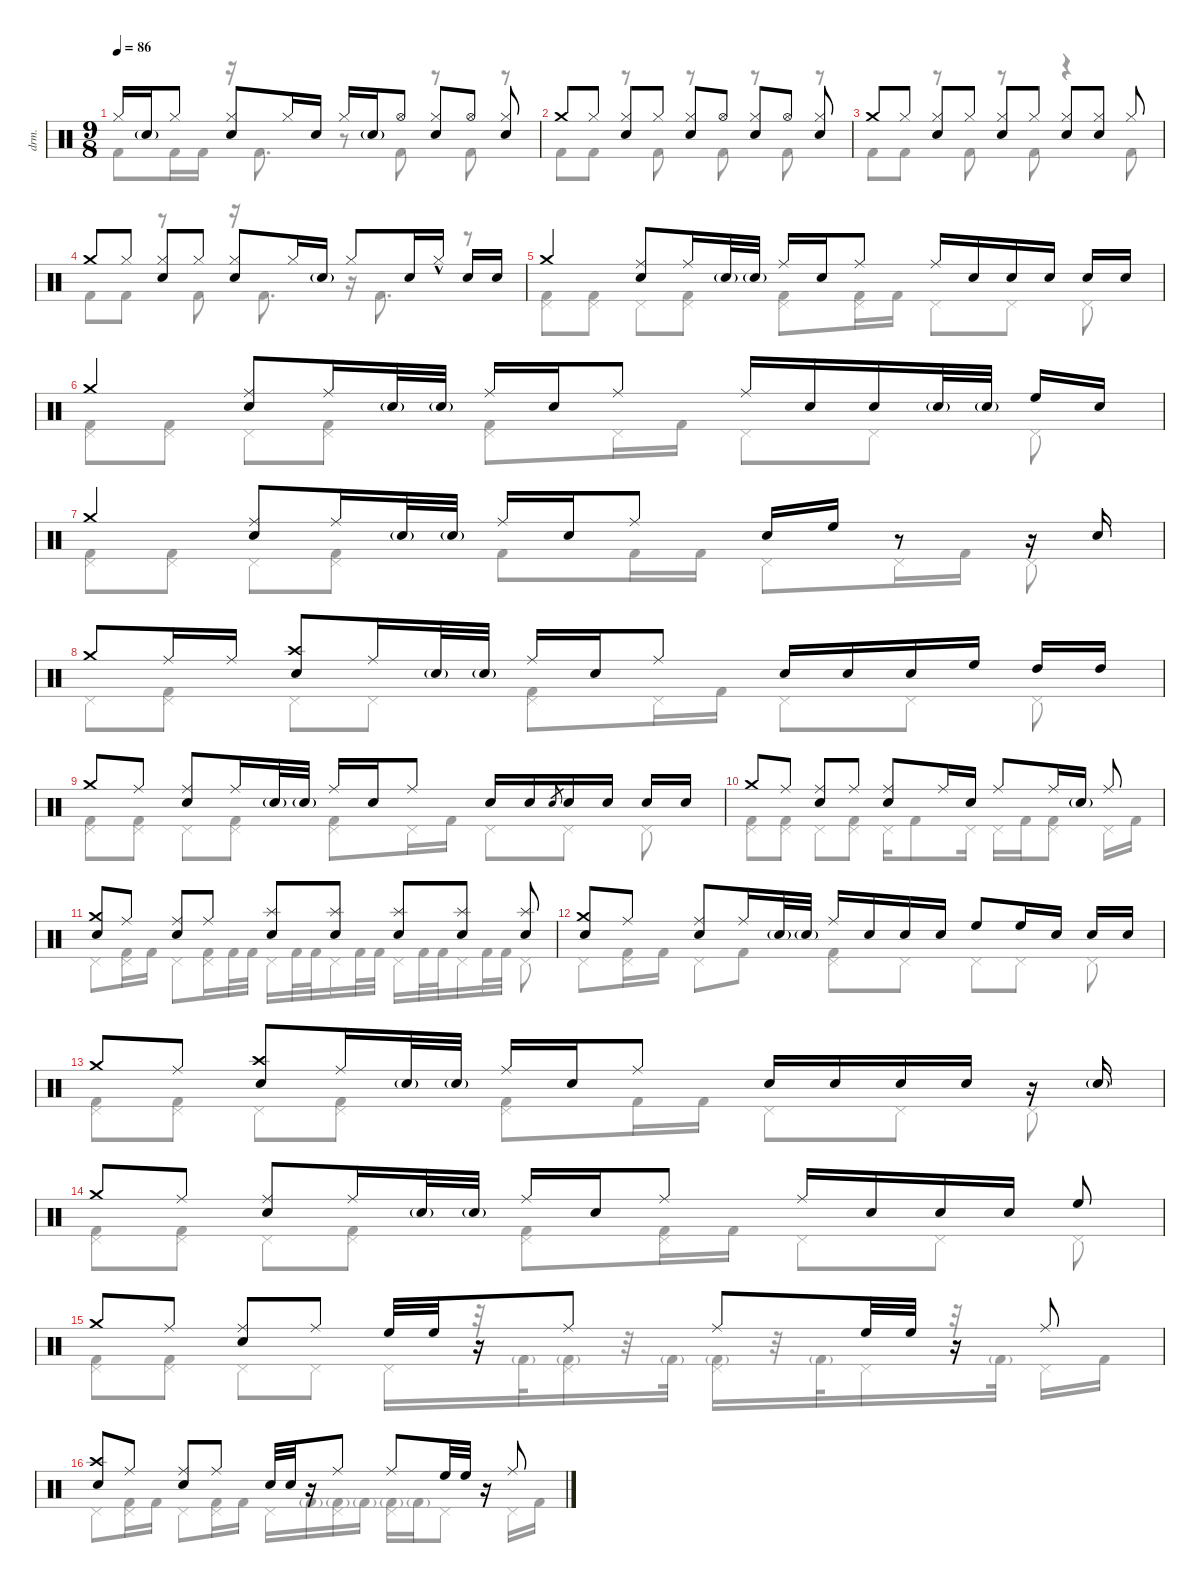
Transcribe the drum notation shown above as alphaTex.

\defaultSystemsLayout 4
\hideDynamics
\bracketExtendMode nobrackets
\track ("Drums" "drm.") {instrument percussion}
\staff {score}
\articulation defaults
\voice
\ts (9 8)
\tempo 86
\clef neutral
\scale
0.488793
\ks c "Hi-Hat (closed)".16{dy mf} "Snare (hit) 2"{g}.16 "Hi-Hat (closed)".8{beam split}
("Hi-Hat (closed)" "Snare (hit) 2").8{beam merge} "Hi-Hat (closed)".16 "Snare (hit) 2".16{beam split} "Hi-Hat (closed)".16 "Snare (hit) 2"{g}.16 "Hi-Hat (open)".8 ("Hi-Hat (closed)" "Snare (hit) 2").8 "Hi-Hat (open)".8{beam split} ("Hi-Hat (closed)" "Snare (hit) 2").8 |
"Crash medium (hit)".8 "Hi-Hat (closed)".8{beam split} ("Hi-Hat (closed)" "Snare (hit) 2").8{beam merge} "Hi-Hat (closed)".8{beam split} ("Hi-Hat (closed)" "Snare (hit) 2").8{beam merge} "Hi-Hat (open)".8 ("Hi-Hat (closed)" "Snare (hit) 2").8 "Hi-Hat (open)".8{beam split} ("Hi-Hat (closed)" "Snare (hit) 2").8 |
"Crash medium (hit)".8 "Hi-Hat (closed)".8{beam split} ("Hi-Hat (closed)" "Snare (hit) 2").8{beam merge} "Hi-Hat (closed)".8{beam split} ("Hi-Hat (closed)" "Snare (hit) 2").8{beam merge} "Hi-Hat (closed)".8 ("Hi-Hat (closed)" "Snare (hit) 2").8 ("Hi-Hat (closed)" "Snare (hit) 2").8{beam split} "Hi-Hat (closed)".8 |
\scale
0.511204 "Crash medium (hit)".8 "Hi-Hat (closed)".8{beam split} ("Hi-Hat (closed)" "Snare (hit) 2").8{beam merge} "Hi-Hat (closed)".8{beam split} ("Hi-Hat (closed)" "Snare (hit) 2").8 "Hi-Hat (closed)".16 "Snare (hit) 2"{g}.16 "Hi-Hat (closed)".8 "Snare (hit) 2".16 "Hi-Hat (closed)"{hac}.16{beam split} "Snare (hit) 2".16 "Snare (hit) 2".16 |
\scale
0.488796 "Crash medium (hit)".4 ("Ride (middle)" "Snare (hit) 2").8{beam merge} "Ride (middle)".16 "Snare (hit) 2"{g}.32 "Snare (hit) 2"{g}.32{beam split} "Ride (middle)".16 "Snare (hit) 2".16 "Ride (middle)".8 "Ride (middle)".16 "Snare (hit) 2".16 "Snare (hit) 2".16 "Snare (hit) 2".16{beam split} "Snare (hit) 2".16 "Snare (hit) 2".16 |
"Crash medium (hit)".4 ("Ride (middle)" "Snare (hit) 2").8{beam merge} "Ride (middle)".16 "Snare (hit) 2"{g}.32 "Snare (hit) 2"{g}.32{beam split} "Ride (middle)".16 "Snare (hit) 2".16 "Ride (middle)".8 "Ride (middle)".16 "Snare (hit) 2".16 "Snare (hit) 2".16 "Snare (hit) 2"{g}.32{beam merge} "Snare (hit) 2"{g}.32{beam split} "High Floor Tom (hit)".16 "Snare (hit) 2".16 |
"Crash medium (hit)".4 ("Ride (middle)" "Snare (hit) 2").8{beam merge} "Ride (middle)".16 "Snare (hit) 2"{g}.32 "Snare (hit) 2"{g}.32{beam split} "Ride (middle)".16 "Snare (hit) 2".16 "Ride (middle)".8 "Snare (hit) 2".16 "High Floor Tom (hit)".16{beam split} r.8{beam split} r.16{beam split} "Snare (hit) 2".16 |
"Crash medium (hit)".8 "Ride (middle)".16 "Ride (middle)".16{beam split} ("Crash high (hit)" "Snare (hit) 2").8{beam merge} "Ride (middle)".16 "Snare (hit) 2"{g}.32 "Snare (hit) 2"{g}.32{beam split} "Ride (middle)".16 "Snare (hit) 2".16 "Ride (middle)".8 "Snare (hit) 2".16 "Snare (hit) 2".16 "Snare (hit) 2".16 "High Floor Tom (hit)".16{beam split} "High Tom (hit)".16 "High Tom (hit)".16 |
"Crash medium (hit)".8 "Ride (middle)".8{beam split} ("Ride (middle)" "Snare (hit) 2").8{beam merge} "Ride (middle)".16 "Snare (hit) 2"{g}.32 "Snare (hit) 2"{g}.32{beam split} "Ride (middle)".16 "Snare (hit) 2".16 "Ride (middle)".8 "Snare (hit) 2".16 "Snare (hit) 2".16 "Snare (hit) 2".8{gr} "Snare (hit) 2".16 "Snare (hit) 2".16{beam split} "Snare (hit) 2".16 "Snare (hit) 2".16 |
\scale
0.511206 "Crash medium (hit)".8 "Ride (middle)".8{beam split} ("Ride (middle)" "Snare (hit) 2").8{beam merge} "Ride (middle)".8{beam split} ("Ride (middle)" "Snare (hit) 2").8 "Ride (middle)".16 "Snare (hit) 2".16 "Ride (middle)".8 "Ride (middle)".16 "Snare (hit) 2"{g}.16{beam split} "Ride (middle)".8 |
\scale
0.488794 ("Crash medium (hit)" "Snare (hit) 2").8 "Ride (middle)".8{beam split} ("Ride (middle)" "Snare (hit) 2").8{beam merge} "Ride (middle)".8{beam split} ("Splash (hit)" "Snare (hit) 2").8 ("Splash (hit)" "Snare (hit) 2").8 ("Splash (hit)" "Snare (hit) 2").8 ("Splash (hit)" "Snare (hit) 2").8{beam split} ("Splash (hit)" "Snare (hit) 2").8 |
("Crash medium (hit)" "Snare (hit) 2").8 "Ride (middle)".8{beam split} ("Ride (middle)" "Snare (hit) 2").8{beam merge} "Ride (middle)".16 "Snare (hit) 2"{g}.32 "Snare (hit) 2"{g}.32{beam split} "Ride (middle)".16 "Snare (hit) 2".16 "Snare (hit) 2".16{beam merge} "Snare (hit) 2".16{beam split} "High Floor Tom (hit)".8 "High Floor Tom (hit)".16 "Snare (hit) 2".16{beam split} "Snare (hit) 2".16 "Snare (hit) 2".16 |
"Crash medium (hit)".8 "Ride (middle)".8{beam split} ("Crash high (hit)" "Snare (hit) 2").8{beam merge} "Ride (middle)".16 "Snare (hit) 2"{g}.32 "Snare (hit) 2"{g}.32{beam split} "Ride (middle)".16 "Snare (hit) 2".16 "Ride (middle)".8 "Snare (hit) 2".16 "Snare (hit) 2".16 "Snare (hit) 2".16 "Snare (hit) 2".16{beam split} r.16{beam split} "Snare (hit) 2"{g}.16 |
"Crash medium (hit)".8 "Ride (middle)".8{beam split} ("Ride (middle)" "Snare (hit) 2").8{beam merge} "Ride (middle)".16 "Snare (hit) 2"{g}.32 "Snare (hit) 2"{g}.32{beam split} "Ride (middle)".16 "Snare (hit) 2".16 "Ride (middle)".8 "Ride (middle)".16 "Snare (hit) 2".16 "Snare (hit) 2".16 "Snare (hit) 2".16{beam split} "High Floor Tom (hit)".8 |
"Crash medium (hit)".8 "Ride (middle)".8{beam split} ("Ride (middle)" "Snare (hit) 2").8{beam merge} "Ride (middle)".8{beam split} "High Floor Tom (hit)".32 "High Floor Tom (hit)".32 r.16 "Ride (middle)".8 "Ride (middle)".8 "High Floor Tom (hit)".32 "High Floor Tom (hit)".32{beam split} r.16{beam split} "Ride (middle)".8 |
("Crash high (hit)" "Snare (hit) 2").8 "Ride (middle)".8{beam split} ("Ride (middle)" "Snare (hit) 2").8{beam merge} "Ride (middle)".8{beam split} "Snare (hit) 2".32 "Snare (hit) 2".32 r.16 "Ride (middle)".8 "Ride (middle)".8 "High Floor Tom (hit)".32 "High Floor Tom (hit)".32{beam split} r.16{beam split} "Ride (middle)".8
\voice
\clef neutral
\ottava regular
\simile none
\scale
0.488793
\ks c "Kick (hit) 2".8{dy mf} "Kick (hit) 2".16 "Kick (hit) 2".16{beam split}
r.16{beam split} "Kick (hit) 2".8{d} r.8 "Kick (hit) 2".8 r.8 "Kick (hit) 2".8 r.8 |
"Kick (hit) 2".8 "Kick (hit) 2".8 r.8 "Kick (hit) 2".8{beam split} r.8{beam split} "Kick (hit) 2".8 r.8 "Kick (hit) 2".8 r.8 |
"Kick (hit) 2".8 "Kick (hit) 2".8 r.8 "Kick (hit) 2".8{beam split} r.8{beam split} "Kick (hit) 2".8 r.4 "Kick (hit) 2".8 |
\scale
0.511204 "Kick (hit) 2".8 "Kick (hit) 2".8 r.8 "Kick (hit) 2".8{beam split} r.16{beam split} "Kick (hit) 2".8{d} r.16 "Kick (hit) 2".8{d} r.8 |
\scale
0.488796 ("Kick (hit) 2" "Pedal Hi-Hat (hit)").8 ("Kick (hit) 2" "Pedal Hi-Hat (hit)").8{beam split} "Pedal Hi-Hat (hit)".8{beam merge} ("Pedal Hi-Hat (hit)" "Kick (hit) 2").8{beam split} ("Kick (hit) 2" "Pedal Hi-Hat (hit)").8 ("Pedal Hi-Hat (hit)" "Kick (hit) 2").16 "Kick (hit) 2".16 "Pedal Hi-Hat (hit)".8 "Pedal Hi-Hat (hit)".8{beam split} "Pedal Hi-Hat (hit)".8 |
("Kick (hit) 2" "Pedal Hi-Hat (hit)").8 ("Kick (hit) 2" "Pedal Hi-Hat (hit)").8{beam split} "Pedal Hi-Hat (hit)".8{beam merge} ("Pedal Hi-Hat (hit)" "Kick (hit) 2").8{beam split} ("Kick (hit) 2" "Pedal Hi-Hat (hit)").8 "Pedal Hi-Hat (hit)".16 "Kick (hit) 2".16 "Pedal Hi-Hat (hit)".8 "Pedal Hi-Hat (hit)".8{beam split} "Pedal Hi-Hat (hit)".8 |
("Kick (hit) 2" "Pedal Hi-Hat (hit)").8 ("Kick (hit) 2" "Pedal Hi-Hat (hit)").8{beam split} "Pedal Hi-Hat (hit)".8{beam merge} ("Pedal Hi-Hat (hit)" "Kick (hit) 2").8{beam split} "Kick (hit) 2".8 "Kick (hit) 2".16 "Kick (hit) 2".16 "Pedal Hi-Hat (hit)".8 "Pedal Hi-Hat (hit)".16{beam merge} "Kick (hit) 2".16{beam split} "Pedal Hi-Hat (hit)".8 |
"Pedal Hi-Hat (hit)".8 ("Kick (hit) 2" "Pedal Hi-Hat (hit)").8{beam split} "Pedal Hi-Hat (hit)".8{beam merge} "Pedal Hi-Hat (hit)".8{beam split} ("Pedal Hi-Hat (hit)" "Kick (hit) 2").8 "Pedal Hi-Hat (hit)".16 "Kick (hit) 2".16 "Pedal Hi-Hat (hit)".8 "Pedal Hi-Hat (hit)".8{beam split} "Pedal Hi-Hat (hit)".8 |
("Pedal Hi-Hat (hit)" "Kick (hit) 2").8 ("Pedal Hi-Hat (hit)" "Kick (hit) 2").8{beam split} "Pedal Hi-Hat (hit)".8{beam merge} ("Kick (hit) 2" "Pedal Hi-Hat (hit)").8{beam split} ("Kick (hit) 2" "Pedal Hi-Hat (hit)").8 "Pedal Hi-Hat (hit)".16 "Kick (hit) 2".16 "Pedal Hi-Hat (hit)".8 "Pedal Hi-Hat (hit)".8{beam split} "Pedal Hi-Hat (hit)".8 |
\scale
0.511206 ("Kick (hit) 2" "Pedal Hi-Hat (hit)").8 ("Kick (hit) 2" "Pedal Hi-Hat (hit)").8{beam split} "Pedal Hi-Hat (hit)".8{beam merge} ("Kick (hit) 2" "Pedal Hi-Hat (hit)").8{beam split} "Pedal Hi-Hat (hit)".16 "Kick (hit) 2".8 "Pedal Hi-Hat (hit)".16 "Pedal Hi-Hat (hit)".16 "Kick (hit) 2".16 ("Kick (hit) 2" "Pedal Hi-Hat (hit)").8{beam split} "Pedal Hi-Hat (hit)".16 "Kick (hit) 2".16 |
\scale
0.488794 "Pedal Hi-Hat (hit)".8 ("Kick (hit) 2" "Pedal Hi-Hat (hit)").16 "Kick (hit) 2".16{beam split} "Pedal Hi-Hat (hit)".8{beam merge} ("Pedal Hi-Hat (hit)" "Kick (hit) 2").16 "Kick (hit) 2".32 "Kick (hit) 2".32{beam split} "Pedal Hi-Hat (hit)".16 "Kick (hit) 2".32 "Kick (hit) 2".32 "Pedal Hi-Hat (hit)".16 "Kick (hit) 2".32 "Kick (hit) 2".32 "Pedal Hi-Hat (hit)".16 "Kick (hit) 2".32 "Kick (hit) 2".32 "Pedal Hi-Hat (hit)".16 "Kick (hit) 2".32 "Kick (hit) 2".32{beam split} "Pedal Hi-Hat (hit)".8 |
"Pedal Hi-Hat (hit)".8 ("Kick (hit) 2" "Pedal Hi-Hat (hit)").16 "Kick (hit) 2".16{beam split} "Pedal Hi-Hat (hit)".8{beam merge} "Kick (hit) 2".8{beam split} ("Kick (hit) 2" "Pedal Hi-Hat (hit)").8 "Pedal Hi-Hat (hit)".8 "Pedal Hi-Hat (hit)".8 "Pedal Hi-Hat (hit)".8{beam split} "Pedal Hi-Hat (hit)".8 |
("Pedal Hi-Hat (hit)" "Kick (hit) 2").8 ("Pedal Hi-Hat (hit)" "Kick (hit) 2").8{beam split} "Pedal Hi-Hat (hit)".8{beam merge} ("Kick (hit) 2" "Pedal Hi-Hat (hit)").8{beam split} ("Pedal Hi-Hat (hit)" "Kick (hit) 2").8 "Kick (hit) 2".16 "Kick (hit) 2".16 "Pedal Hi-Hat (hit)".8 "Pedal Hi-Hat (hit)".8{beam split} "Pedal Hi-Hat (hit)".8 |
("Kick (hit) 2" "Pedal Hi-Hat (hit)").8 ("Kick (hit) 2" "Pedal Hi-Hat (hit)").8{beam split} "Pedal Hi-Hat (hit)".8{beam merge} ("Kick (hit) 2" "Pedal Hi-Hat (hit)").8{beam split} ("Pedal Hi-Hat (hit)" "Kick (hit) 2").8 ("Kick (hit) 2" "Pedal Hi-Hat (hit)").16 "Kick (hit) 2".16 "Pedal Hi-Hat (hit)".8 "Pedal Hi-Hat (hit)".8{beam split} "Pedal Hi-Hat (hit)".8 |
("Kick (hit) 2" "Pedal Hi-Hat (hit)").8 ("Pedal Hi-Hat (hit)" "Kick (hit) 2").8{beam split} "Pedal Hi-Hat (hit)".8{beam merge} "Pedal Hi-Hat (hit)".8{beam split} "Pedal Hi-Hat (hit)".16 r.32 "Kick (hit) 2"{g}.32 ("Kick (hit) 2"{g} "Pedal Hi-Hat (hit)").16 r.32 "Kick (hit) 2"{g}.32 ("Kick (hit) 2"{g} "Pedal Hi-Hat (hit)").16 r.32 "Kick (hit) 2"{g}.32 "Pedal Hi-Hat (hit)".16 r.32 "Kick (hit) 2"{g}.32{beam split} "Pedal Hi-Hat (hit)".16 "Kick (hit) 2".16 |
"Pedal Hi-Hat (hit)".8 ("Pedal Hi-Hat (hit)" "Kick (hit) 2").16 "Kick (hit) 2".16{beam split} "Pedal Hi-Hat (hit)".8{beam merge} ("Pedal Hi-Hat (hit)" "Kick (hit) 2").16 "Kick (hit) 2".16{beam split} "Pedal Hi-Hat (hit)".16 "Kick (hit) 2"{g}.16 ("Kick (hit) 2"{g} "Pedal Hi-Hat (hit)").16 "Kick (hit) 2"{g}.16 ("Kick (hit) 2"{g} "Pedal Hi-Hat (hit)").16 "Kick (hit) 2"{g}.16 "Pedal Hi-Hat (hit)".8{beam split} "Pedal Hi-Hat (hit)".16 "Kick (hit) 2".16
